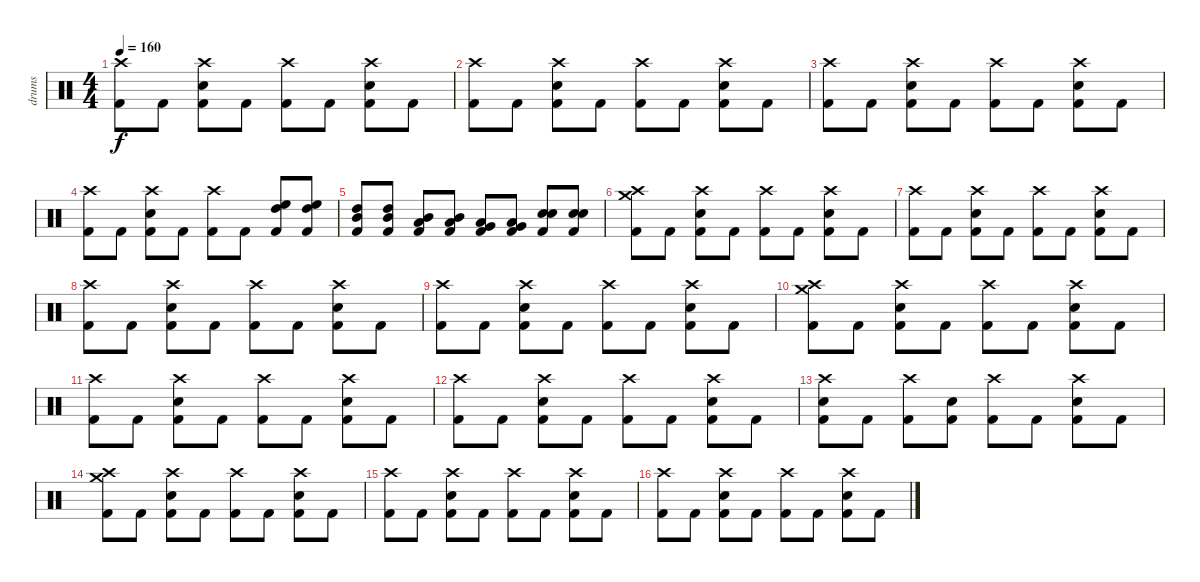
\track ("drums" "drums") {instrument percussion}
\staff {score}
\articulation defaults
\ts (4 4)
\tempo 160
\clef neutral
\ks c
("Crash high (hit)" "Kick (hit) 2").8{dy f} "Kick (hit) 2".8 ("Crash high (hit)" "Electric Snare (hit)" "Kick (hit) 2").8 "Kick (hit) 2".8 ("Crash high (hit)" "Kick (hit) 2").8 "Kick (hit) 2".8 ("Crash high (hit)" "Electric Snare (hit)" "Kick (hit) 2").8 "Kick (hit) 2".8 |
("Crash high (hit)" "Kick (hit) 2").8 "Kick (hit) 2".8 ("Crash high (hit)" "Electric Snare (hit)" "Kick (hit) 2").8 "Kick (hit) 2".8 ("Crash high (hit)" "Kick (hit) 2").8 "Kick (hit) 2".8 ("Crash high (hit)" "Electric Snare (hit)" "Kick (hit) 2").8 "Kick (hit) 2".8 |
("Crash high (hit)" "Kick (hit) 2").8 "Kick (hit) 2".8 ("Crash high (hit)" "Electric Snare (hit)" "Kick (hit) 2").8 "Kick (hit) 2".8 ("Crash high (hit)" "Kick (hit) 2").8 "Kick (hit) 2".8 ("Crash high (hit)" "Electric Snare (hit)" "Kick (hit) 2").8 "Kick (hit) 2".8 |
("Crash high (hit)" "Kick (hit) 2").8 "Kick (hit) 2".8 ("Crash high (hit)" "Electric Snare (hit)" "Kick (hit) 2").8 "Kick (hit) 2".8 ("Crash high (hit)" "Kick (hit) 2").8 "Kick (hit) 2".8 ("High Floor Tom (hit)" "High Tom (hit)" "Kick (hit) 2").8 ("High Floor Tom (hit)" "High Tom (hit)" "Kick (hit) 2").8 |
("High Tom (hit)" "Mid Tom (hit)" "Kick (hit) 2").8 ("High Tom (hit)" "Mid Tom (hit)" "Kick (hit) 2").8 ("Mid Tom (hit)" "Low Tom (hit)" "Kick (hit) 2").8 ("Mid Tom (hit)" "Low Tom (hit)" "Kick (hit) 2").8 ("Low Tom (hit)" "Very Low Tom (hit)" "Kick (hit) 2").8 ("Low Tom (hit)" "Very Low Tom (hit)" "Kick (hit) 2").8 ("Electric Snare (hit)" "Electric Snare (hit)" "Kick (hit) 2").8 ("Electric Snare (hit)" "Electric Snare (hit)" "Kick (hit) 2").8 |
("Crash high (hit)" "Crash medium (hit)" "Kick (hit) 2").8 "Kick (hit) 2".8 ("Crash high (hit)" "Electric Snare (hit)" "Kick (hit) 2").8 "Kick (hit) 2".8 ("Crash high (hit)" "Kick (hit) 2").8 "Kick (hit) 2".8 ("Crash high (hit)" "Electric Snare (hit)" "Kick (hit) 2").8 "Kick (hit) 2".8 |
("Crash high (hit)" "Kick (hit) 2").8 "Kick (hit) 2".8 ("Crash high (hit)" "Electric Snare (hit)" "Kick (hit) 2").8 "Kick (hit) 2".8 ("Crash high (hit)" "Kick (hit) 2").8 "Kick (hit) 2".8 ("Crash high (hit)" "Electric Snare (hit)" "Kick (hit) 2").8 "Kick (hit) 2".8 |
("Crash high (hit)" "Kick (hit) 2").8 "Kick (hit) 2".8 ("Crash high (hit)" "Electric Snare (hit)" "Kick (hit) 2").8 "Kick (hit) 2".8 ("Crash high (hit)" "Kick (hit) 2").8 "Kick (hit) 2".8 ("Crash high (hit)" "Electric Snare (hit)" "Kick (hit) 2").8 "Kick (hit) 2".8 |
("Crash high (hit)" "Kick (hit) 2").8 "Kick (hit) 2".8 ("Crash high (hit)" "Electric Snare (hit)" "Kick (hit) 2").8 "Kick (hit) 2".8 ("Crash high (hit)" "Kick (hit) 2").8 "Kick (hit) 2".8 ("Crash high (hit)" "Electric Snare (hit)" "Kick (hit) 2").8 "Kick (hit) 2".8 |
("Crash high (hit)" "Crash medium (hit)" "Kick (hit) 2").8 "Kick (hit) 2".8 ("Crash high (hit)" "Electric Snare (hit)" "Kick (hit) 2").8 "Kick (hit) 2".8 ("Crash high (hit)" "Kick (hit) 2").8 "Kick (hit) 2".8 ("Crash high (hit)" "Electric Snare (hit)" "Kick (hit) 2").8 "Kick (hit) 2".8 |
("Crash high (hit)" "Kick (hit) 2").8 "Kick (hit) 2".8 ("Crash high (hit)" "Electric Snare (hit)" "Kick (hit) 2").8 "Kick (hit) 2".8 ("Crash high (hit)" "Kick (hit) 2").8 "Kick (hit) 2".8 ("Crash high (hit)" "Electric Snare (hit)" "Kick (hit) 2").8 "Kick (hit) 2".8 |
("Crash high (hit)" "Kick (hit) 2").8 "Kick (hit) 2".8 ("Crash high (hit)" "Electric Snare (hit)" "Kick (hit) 2").8 "Kick (hit) 2".8 ("Crash high (hit)" "Kick (hit) 2").8 "Kick (hit) 2".8 ("Crash high (hit)" "Electric Snare (hit)" "Kick (hit) 2").8 "Kick (hit) 2".8 |
("Crash high (hit)" "Electric Snare (hit)" "Kick (hit) 2").8 "Kick (hit) 2".8 ("Crash high (hit)" "Kick (hit) 2").8 ("Electric Snare (hit)" "Kick (hit) 2").8 ("Crash high (hit)" "Kick (hit) 2").8 "Kick (hit) 2".8 ("Crash high (hit)" "Electric Snare (hit)" "Kick (hit) 2").8 "Kick (hit) 2".8 |
("Crash high (hit)" "Crash medium (hit)" "Kick (hit) 2").8 "Kick (hit) 2".8 ("Crash high (hit)" "Electric Snare (hit)" "Kick (hit) 2").8 "Kick (hit) 2".8 ("Crash high (hit)" "Kick (hit) 2").8 "Kick (hit) 2".8 ("Crash high (hit)" "Electric Snare (hit)" "Kick (hit) 2").8 "Kick (hit) 2".8 |
("Crash high (hit)" "Kick (hit) 2").8 "Kick (hit) 2".8 ("Crash high (hit)" "Electric Snare (hit)" "Kick (hit) 2").8 "Kick (hit) 2".8 ("Crash high (hit)" "Kick (hit) 2").8 "Kick (hit) 2".8 ("Crash high (hit)" "Electric Snare (hit)" "Kick (hit) 2").8 "Kick (hit) 2".8 |
("Crash high (hit)" "Kick (hit) 2").8 "Kick (hit) 2".8 ("Crash high (hit)" "Electric Snare (hit)" "Kick (hit) 2").8 "Kick (hit) 2".8 ("Crash high (hit)" "Kick (hit) 2").8 "Kick (hit) 2".8 ("Crash high (hit)" "Electric Snare (hit)" "Kick (hit) 2").8 "Kick (hit) 2".8
